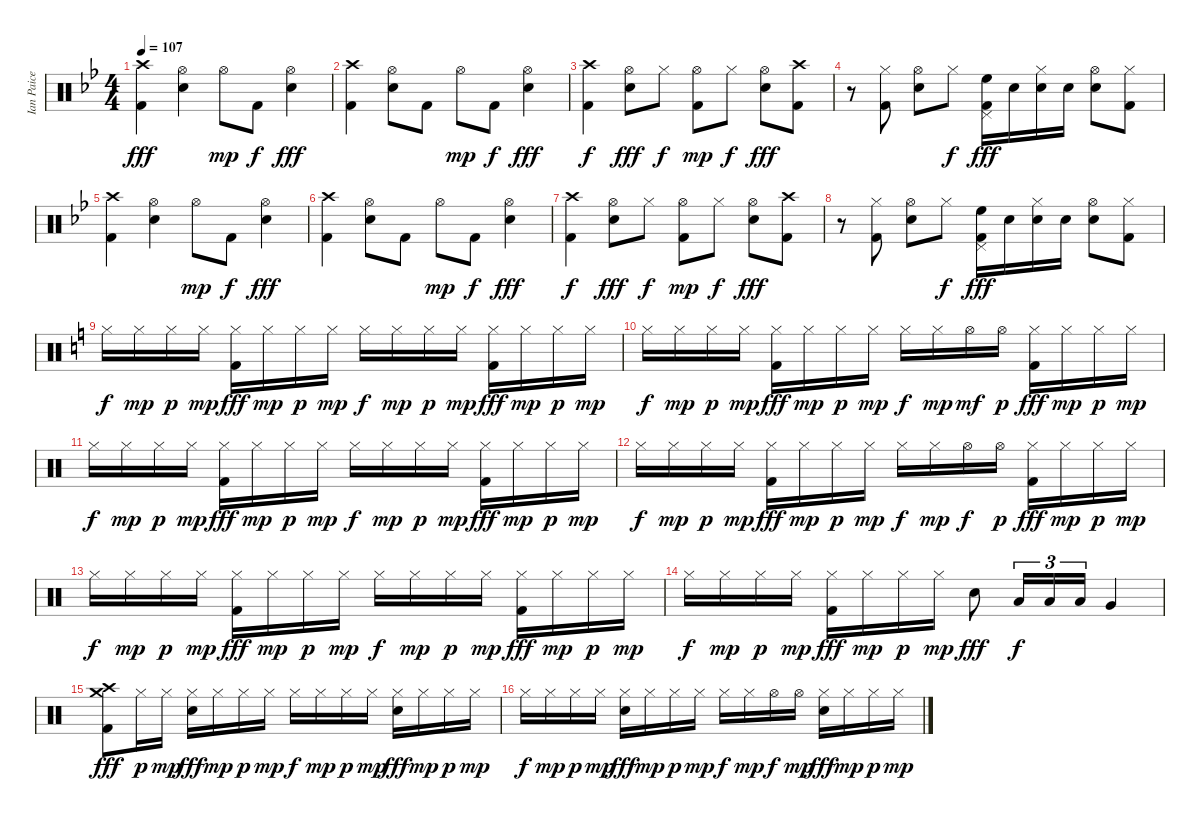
\track ("Ian Paice" "Ian Paice") {instrument percussion}
\staff {score}
\articulation defaults
\ts (4 4)
\tempo 107
\clef neutral
\ks bb
("Crash high (hit)" "Kick (hit) 2").4{dy fff} ("Hi-Hat (open)" "Electric Snare (hit)").4 "Hi-Hat (open)".8{dy mp} "Kick (hit) 2".8{dy f} ("Hi-Hat (open)" "Electric Snare (hit)").4{dy fff} |
("Crash high (hit)" "Kick (hit) 2").4 ("Hi-Hat (open)" "Electric Snare (hit)").8 "Kick (hit) 2".8 "Hi-Hat (open)".8{dy mp} "Kick (hit) 2".8{dy f} ("Hi-Hat (open)" "Electric Snare (hit)").4{dy fff} |
("Crash high (hit)" "Kick (hit) 2").4{dy f} ("Hi-Hat (open)" "Electric Snare (hit)").8{dy fff} "Hi-Hat (closed)".8{dy f} ("Hi-Hat (open)" "Kick (hit) 2").8{dy mp} "Hi-Hat (closed)".8{dy f} ("Hi-Hat (open)" "Electric Snare (hit)").8{dy fff} ("Crash high (hit)" "Kick (hit) 2").8 |
r.8 ("Hi-Hat (closed)" "Kick (hit) 2").8 ("Hi-Hat (open)" "Electric Snare (hit)").8 "Hi-Hat (closed)".8{dy f} ("Pedal Hi-Hat (hit)" "High Floor Tom (hit)" "Kick (hit) 2").16{dy fff} "Electric Snare (hit)".16 ("Hi-Hat (closed)" "Electric Snare (hit)").16 "Electric Snare (hit)".16 ("Hi-Hat (open)" "Electric Snare (hit)").8 ("Hi-Hat (closed)" "Kick (hit) 2").8 |
("Crash high (hit)" "Kick (hit) 2").4 ("Hi-Hat (open)" "Electric Snare (hit)").4 "Hi-Hat (open)".8{dy mp} "Kick (hit) 2".8{dy f} ("Hi-Hat (open)" "Electric Snare (hit)").4{dy fff} |
("Crash high (hit)" "Kick (hit) 2").4 ("Hi-Hat (open)" "Electric Snare (hit)").8 "Kick (hit) 2".8 "Hi-Hat (open)".8{dy mp} "Kick (hit) 2".8{dy f} ("Hi-Hat (open)" "Electric Snare (hit)").4{dy fff} |
("Crash high (hit)" "Kick (hit) 2").4{dy f} ("Hi-Hat (open)" "Electric Snare (hit)").8{dy fff} "Hi-Hat (closed)".8{dy f} ("Hi-Hat (open)" "Kick (hit) 2").8{dy mp} "Hi-Hat (closed)".8{dy f} ("Hi-Hat (open)" "Electric Snare (hit)").8{dy fff} ("Crash high (hit)" "Kick (hit) 2").8 |
r.8 ("Hi-Hat (closed)" "Kick (hit) 2").8 ("Hi-Hat (open)" "Electric Snare (hit)").8 "Hi-Hat (closed)".8{dy f} ("Pedal Hi-Hat (hit)" "High Floor Tom (hit)" "Kick (hit) 2").16{dy fff} "Electric Snare (hit)".16 ("Hi-Hat (closed)" "Electric Snare (hit)").16 "Electric Snare (hit)".16 ("Hi-Hat (open)" "Electric Snare (hit)").8 ("Hi-Hat (closed)" "Kick (hit) 2").8 |
\ks c "Hi-Hat (closed)".16{dy f} "Hi-Hat (closed)".16{dy mp} "Hi-Hat (closed)".16{dy p} "Hi-Hat (closed)".16{dy mp}
("Hi-Hat (closed)" "Kick (hit) 2").16{dy fff} "Hi-Hat (closed)".16{dy mp} "Hi-Hat (closed)".16{dy p} "Hi-Hat (closed)".16{dy mp} "Hi-Hat (closed)".16{dy f} "Hi-Hat (closed)".16{dy mp} "Hi-Hat (closed)".16{dy p} "Hi-Hat (closed)".16{dy mp} ("Hi-Hat (closed)" "Kick (hit) 2").16{dy fff} "Hi-Hat (closed)".16{dy mp} "Hi-Hat (closed)".16{dy p} "Hi-Hat (closed)".16{dy mp} |
"Hi-Hat (closed)".16{dy f} "Hi-Hat (closed)".16{dy mp} "Hi-Hat (closed)".16{dy p} "Hi-Hat (closed)".16{dy mp} ("Hi-Hat (closed)" "Kick (hit) 2").16{dy fff} "Hi-Hat (closed)".16{dy mp} "Hi-Hat (closed)".16{dy p} "Hi-Hat (closed)".16{dy mp} "Hi-Hat (closed)".16{dy f} "Hi-Hat (closed)".16{dy mp} "Hi-Hat (open)".16{dy mf} "Hi-Hat (open)".16{dy p} ("Hi-Hat (closed)" "Kick (hit) 2").16{dy fff} "Hi-Hat (closed)".16{dy mp} "Hi-Hat (closed)".16{dy p} "Hi-Hat (closed)".16{dy mp} |
"Hi-Hat (closed)".16{dy f} "Hi-Hat (closed)".16{dy mp} "Hi-Hat (closed)".16{dy p} "Hi-Hat (closed)".16{dy mp} ("Hi-Hat (closed)" "Kick (hit) 2").16{dy fff} "Hi-Hat (closed)".16{dy mp} "Hi-Hat (closed)".16{dy p} "Hi-Hat (closed)".16{dy mp} "Hi-Hat (closed)".16{dy f} "Hi-Hat (closed)".16{dy mp} "Hi-Hat (closed)".16{dy p} "Hi-Hat (closed)".16{dy mp} ("Hi-Hat (closed)" "Kick (hit) 2").16{dy fff} "Hi-Hat (closed)".16{dy mp} "Hi-Hat (closed)".16{dy p} "Hi-Hat (closed)".16{dy mp} |
"Hi-Hat (closed)".16{dy f} "Hi-Hat (closed)".16{dy mp} "Hi-Hat (closed)".16{dy p} "Hi-Hat (closed)".16{dy mp} ("Hi-Hat (closed)" "Kick (hit) 2").16{dy fff} "Hi-Hat (closed)".16{dy mp} "Hi-Hat (closed)".16{dy p} "Hi-Hat (closed)".16{dy mp} "Hi-Hat (closed)".16{dy f} "Hi-Hat (closed)".16{dy mp} "Hi-Hat (open)".16{dy f} "Hi-Hat (open)".16{dy p} ("Hi-Hat (closed)" "Kick (hit) 2").16{dy fff} "Hi-Hat (closed)".16{dy mp} "Hi-Hat (closed)".16{dy p} "Hi-Hat (closed)".16{dy mp} |
"Hi-Hat (closed)".16{dy f} "Hi-Hat (closed)".16{dy mp} "Hi-Hat (closed)".16{dy p} "Hi-Hat (closed)".16{dy mp} ("Hi-Hat (closed)" "Kick (hit) 2").16{dy fff} "Hi-Hat (closed)".16{dy mp} "Hi-Hat (closed)".16{dy p} "Hi-Hat (closed)".16{dy mp} "Hi-Hat (closed)".16{dy f} "Hi-Hat (closed)".16{dy mp} "Hi-Hat (closed)".16{dy p} "Hi-Hat (closed)".16{dy mp} ("Hi-Hat (closed)" "Kick (hit) 2").16{dy fff} "Hi-Hat (closed)".16{dy mp} "Hi-Hat (closed)".16{dy p} "Hi-Hat (closed)".16{dy mp} |
"Hi-Hat (closed)".16{dy f} "Hi-Hat (closed)".16{dy mp} "Hi-Hat (closed)".16{dy p} "Hi-Hat (closed)".16{dy mp} ("Hi-Hat (closed)" "Kick (hit) 2").16{dy fff} "Hi-Hat (closed)".16{dy mp} "Hi-Hat (closed)".16{dy p} "Hi-Hat (closed)".16{dy mp} "Electric Snare (hit)".8{dy fff} "Low Tom (hit)".16{tu (3 2) dy f} "Low Tom (hit)".16{tu (3 2)} "Low Tom (hit)".16{tu (3 2)} "Very Low Tom (hit)".4 |
("Crash medium (hit)" "Crash high (hit)" "Kick (hit) 2").8{dy fff} "Hi-Hat (closed)".16{dy p} "Hi-Hat (closed)".16{dy mp} ("Hi-Hat (closed)" "Electric Snare (hit)").16{dy fff} "Hi-Hat (closed)".16{dy mp} "Hi-Hat (closed)".16{dy p} "Hi-Hat (closed)".16{dy mp} "Hi-Hat (closed)".16{dy f} "Hi-Hat (closed)".16{dy mp} "Hi-Hat (closed)".16{dy p} "Hi-Hat (closed)".16{dy mp} ("Hi-Hat (closed)" "Electric Snare (hit)").16{dy fff} "Hi-Hat (closed)".16{dy mp} "Hi-Hat (closed)".16{dy p} "Hi-Hat (closed)".16{dy mp} |
"Hi-Hat (closed)".16{dy f} "Hi-Hat (closed)".16{dy mp} "Hi-Hat (closed)".16{dy p} "Hi-Hat (closed)".16{dy mp} ("Hi-Hat (closed)" "Electric Snare (hit)").16{dy fff} "Hi-Hat (closed)".16{dy mp} "Hi-Hat (closed)".16{dy p} "Hi-Hat (closed)".16{dy mp} "Hi-Hat (closed)".16{dy f} "Hi-Hat (closed)".16{dy mp} "Hi-Hat (open)".16{dy f} "Hi-Hat (open)".16{dy mp} ("Hi-Hat (closed)" "Electric Snare (hit)").16{dy fff} "Hi-Hat (closed)".16{dy mp} "Hi-Hat (closed)".16{dy p} "Hi-Hat (closed)".16{dy mp}
